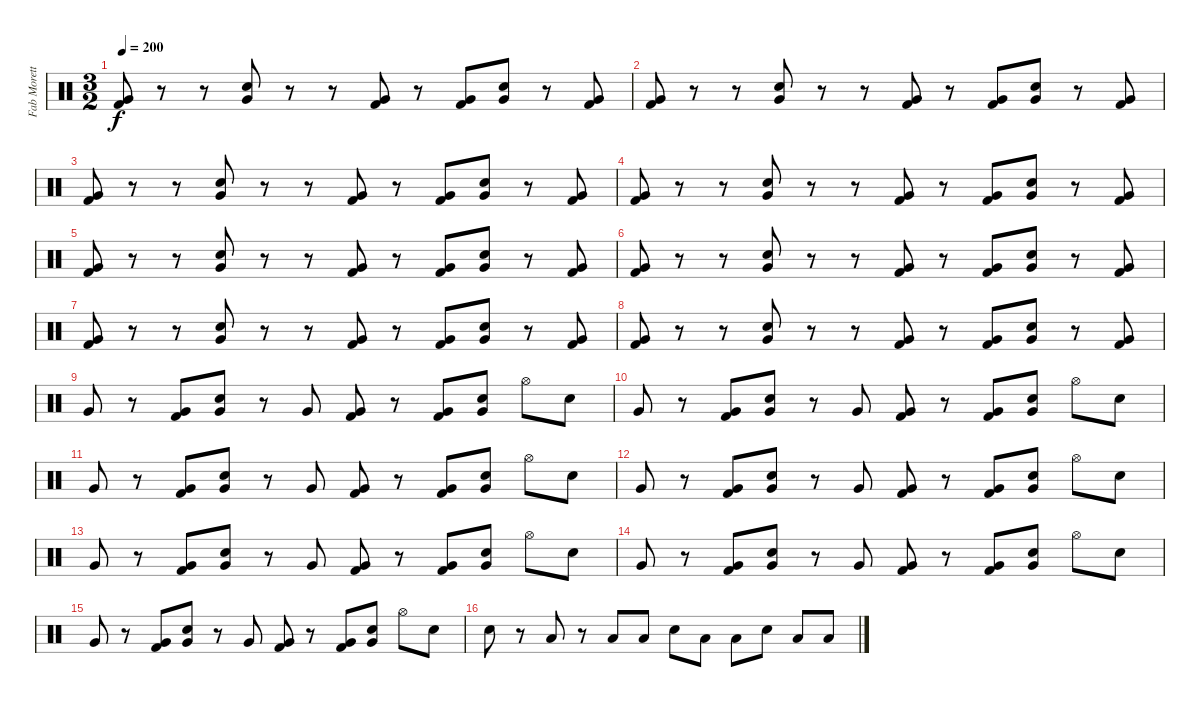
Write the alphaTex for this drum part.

\track ("Fab Moretti" "Fab Morett") {instrument percussion}
\staff {score}
\articulation defaults
\ts (3 2)
\tempo 200
\clef neutral
\ks c
("Very Low Tom (hit)" "Kick (hit) 2").8{dy f} r.8 r.8 ("Very Low Tom (hit)" "Snare (hit) 2").8 r.8 r.8 ("Very Low Tom (hit)" "Kick (hit) 2").8 r.8 ("Very Low Tom (hit)" "Kick (hit) 2").8 ("Very Low Tom (hit)" "Snare (hit) 2").8 r.8 ("Very Low Tom (hit)" "Kick (hit) 2").8 |
("Very Low Tom (hit)" "Kick (hit) 2").8 r.8 r.8 ("Very Low Tom (hit)" "Snare (hit) 2").8 r.8 r.8 ("Very Low Tom (hit)" "Kick (hit) 2").8 r.8 ("Very Low Tom (hit)" "Kick (hit) 2").8 ("Very Low Tom (hit)" "Snare (hit) 2").8 r.8 ("Very Low Tom (hit)" "Kick (hit) 2").8 |
("Very Low Tom (hit)" "Kick (hit) 2").8 r.8 r.8 ("Very Low Tom (hit)" "Snare (hit) 2").8 r.8 r.8 ("Very Low Tom (hit)" "Kick (hit) 2").8 r.8 ("Very Low Tom (hit)" "Kick (hit) 2").8 ("Very Low Tom (hit)" "Snare (hit) 2").8 r.8 ("Very Low Tom (hit)" "Kick (hit) 2").8 |
("Very Low Tom (hit)" "Kick (hit) 2").8 r.8 r.8 ("Very Low Tom (hit)" "Snare (hit) 2").8 r.8 r.8 ("Very Low Tom (hit)" "Kick (hit) 2").8 r.8 ("Very Low Tom (hit)" "Kick (hit) 2").8 ("Very Low Tom (hit)" "Snare (hit) 2").8 r.8 ("Very Low Tom (hit)" "Kick (hit) 2").8 |
("Very Low Tom (hit)" "Kick (hit) 2").8 r.8 r.8 ("Very Low Tom (hit)" "Snare (hit) 2").8 r.8 r.8 ("Very Low Tom (hit)" "Kick (hit) 2").8 r.8 ("Very Low Tom (hit)" "Kick (hit) 2").8 ("Very Low Tom (hit)" "Snare (hit) 2").8 r.8 ("Very Low Tom (hit)" "Kick (hit) 2").8 |
("Very Low Tom (hit)" "Kick (hit) 2").8 r.8 r.8 ("Very Low Tom (hit)" "Snare (hit) 2").8 r.8 r.8 ("Very Low Tom (hit)" "Kick (hit) 2").8 r.8 ("Very Low Tom (hit)" "Kick (hit) 2").8 ("Very Low Tom (hit)" "Snare (hit) 2").8 r.8 ("Very Low Tom (hit)" "Kick (hit) 2").8 |
("Very Low Tom (hit)" "Kick (hit) 2").8 r.8 r.8 ("Very Low Tom (hit)" "Snare (hit) 2").8 r.8 r.8 ("Very Low Tom (hit)" "Kick (hit) 2").8 r.8 ("Very Low Tom (hit)" "Kick (hit) 2").8 ("Very Low Tom (hit)" "Snare (hit) 2").8 r.8 ("Very Low Tom (hit)" "Kick (hit) 2").8 |
("Very Low Tom (hit)" "Kick (hit) 2").8 r.8 r.8 ("Very Low Tom (hit)" "Snare (hit) 2").8 r.8 r.8 ("Very Low Tom (hit)" "Kick (hit) 2").8 r.8 ("Very Low Tom (hit)" "Kick (hit) 2").8 ("Very Low Tom (hit)" "Snare (hit) 2").8 r.8 ("Very Low Tom (hit)" "Kick (hit) 2").8 |
"Very Low Tom (hit)".8 r.8 ("Very Low Tom (hit)" "Kick (hit) 2").8 ("Very Low Tom (hit)" "Snare (hit) 2").8 r.8 "Very Low Tom (hit)".8 ("Very Low Tom (hit)" "Kick (hit) 2").8 r.8 ("Very Low Tom (hit)" "Kick (hit) 2").8 ("Very Low Tom (hit)" "Snare (hit) 2").8 "Hi-Hat (open)".8 "Snare (hit) 2".8 |
"Very Low Tom (hit)".8 r.8 ("Very Low Tom (hit)" "Kick (hit) 2").8 ("Very Low Tom (hit)" "Snare (hit) 2").8 r.8 "Very Low Tom (hit)".8 ("Very Low Tom (hit)" "Kick (hit) 2").8 r.8 ("Very Low Tom (hit)" "Kick (hit) 2").8 ("Very Low Tom (hit)" "Snare (hit) 2").8 "Hi-Hat (open)".8 "Snare (hit) 2".8 |
"Very Low Tom (hit)".8 r.8 ("Very Low Tom (hit)" "Kick (hit) 2").8 ("Very Low Tom (hit)" "Snare (hit) 2").8 r.8 "Very Low Tom (hit)".8 ("Very Low Tom (hit)" "Kick (hit) 2").8 r.8 ("Very Low Tom (hit)" "Kick (hit) 2").8 ("Very Low Tom (hit)" "Snare (hit) 2").8 "Hi-Hat (open)".8 "Snare (hit) 2".8 |
"Very Low Tom (hit)".8 r.8 ("Very Low Tom (hit)" "Kick (hit) 2").8 ("Very Low Tom (hit)" "Snare (hit) 2").8 r.8 "Very Low Tom (hit)".8 ("Very Low Tom (hit)" "Kick (hit) 2").8 r.8 ("Very Low Tom (hit)" "Kick (hit) 2").8 ("Very Low Tom (hit)" "Snare (hit) 2").8 "Hi-Hat (open)".8 "Snare (hit) 2".8 |
"Very Low Tom (hit)".8 r.8 ("Very Low Tom (hit)" "Kick (hit) 2").8 ("Very Low Tom (hit)" "Snare (hit) 2").8 r.8 "Very Low Tom (hit)".8 ("Very Low Tom (hit)" "Kick (hit) 2").8 r.8 ("Very Low Tom (hit)" "Kick (hit) 2").8 ("Very Low Tom (hit)" "Snare (hit) 2").8 "Hi-Hat (open)".8 "Snare (hit) 2".8 |
"Very Low Tom (hit)".8 r.8 ("Very Low Tom (hit)" "Kick (hit) 2").8 ("Very Low Tom (hit)" "Snare (hit) 2").8 r.8 "Very Low Tom (hit)".8 ("Very Low Tom (hit)" "Kick (hit) 2").8 r.8 ("Very Low Tom (hit)" "Kick (hit) 2").8 ("Very Low Tom (hit)" "Snare (hit) 2").8 "Hi-Hat (open)".8 "Snare (hit) 2".8 |
"Very Low Tom (hit)".8 r.8 ("Very Low Tom (hit)" "Kick (hit) 2").8 ("Very Low Tom (hit)" "Snare (hit) 2").8 r.8 "Very Low Tom (hit)".8 ("Very Low Tom (hit)" "Kick (hit) 2").8 r.8 ("Very Low Tom (hit)" "Kick (hit) 2").8 ("Very Low Tom (hit)" "Snare (hit) 2").8 "Hi-Hat (open)".8 "Snare (hit) 2".8 |
"Snare (hit) 2".8 r.8 "Low Tom (hit)".8 r.8 "Low Tom (hit)".8 "Low Tom (hit)".8 "Snare (hit) 2".8 "Low Tom (hit)".8 "Low Tom (hit)".8 "Snare (hit) 2".8 "Low Tom (hit)".8 "Low Tom (hit)".8
